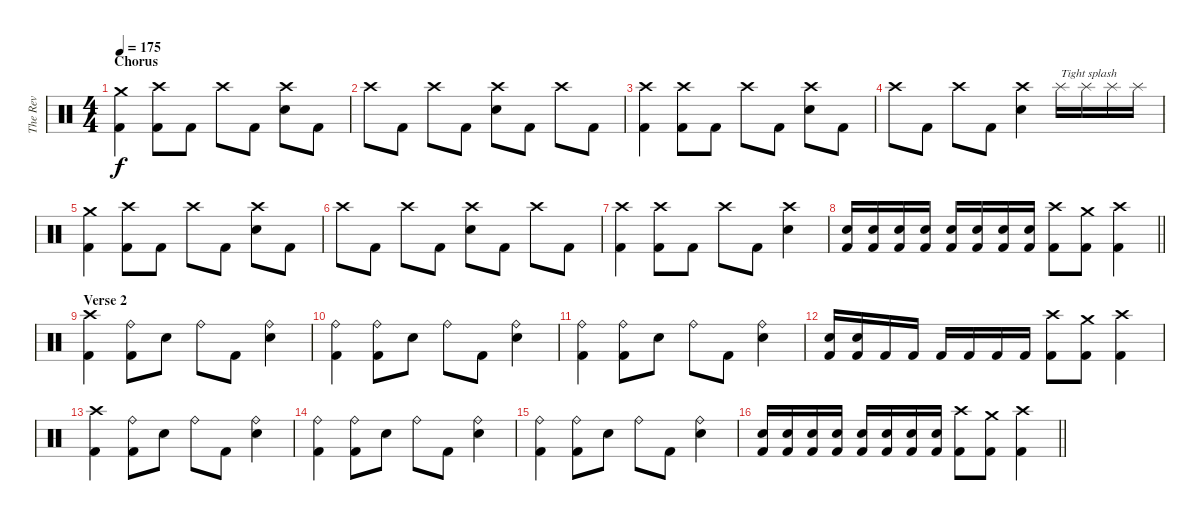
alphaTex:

\track ("The Rev" "The Rev") {instrument percussion}
\staff {score}
\articulation defaults
\ts (4 4)
\section ("" "Chorus")
\tempo 175
\clef neutral
\ks c
("Crash medium (hit)" "Kick (hit) 2").4{dy f} ("Crash high (hit)" "Kick (hit) 2").8 "Kick (hit) 2".8 "Crash high (hit)".8 "Kick (hit) 2".8 ("Crash high (hit)" "Snare (hit) 2").8 "Kick (hit) 2".8 |
"Crash high (hit)".8 "Kick (hit) 2".8 "Crash high (hit)".8 "Kick (hit) 2".8 ("Crash high (hit)" "Snare (hit) 2").8 "Kick (hit) 2".8 "Crash high (hit)".8 "Kick (hit) 2".8 |
("Crash high (hit)" "Kick (hit) 2").4 ("Crash high (hit)" "Kick (hit) 2").8 "Kick (hit) 2".8 "Crash high (hit)".8 "Kick (hit) 2".8 ("Crash high (hit)" "Snare (hit) 2").8 "Kick (hit) 2".8 |
"Crash high (hit)".8 "Kick (hit) 2".8 "Crash high (hit)".8 "Kick (hit) 2".8 ("Crash high (hit)" "Snare (hit) 2").4 "Splash (hit)".16{txt "Tight splash"} "Splash (hit)".16 "Splash (hit)".16 "Splash (hit)".16 |
("Crash medium (hit)" "Kick (hit) 2").4 ("Crash high (hit)" "Kick (hit) 2").8 "Kick (hit) 2".8 "Crash high (hit)".8 "Kick (hit) 2".8 ("Crash high (hit)" "Snare (hit) 2").8 "Kick (hit) 2".8 |
"Crash high (hit)".8 "Kick (hit) 2".8 "Crash high (hit)".8 "Kick (hit) 2".8 ("Crash high (hit)" "Snare (hit) 2").8 "Kick (hit) 2".8 "Crash high (hit)".8 "Kick (hit) 2".8 |
("Crash high (hit)" "Kick (hit) 2").4 ("Crash high (hit)" "Kick (hit) 2").8 "Kick (hit) 2".8 "Crash high (hit)".8 "Kick (hit) 2".8 ("Crash high (hit)" "Snare (hit) 2").4 |
\barLineRight lightlight
("Snare (hit) 2" "Kick (hit) 2").16 ("Snare (hit) 2" "Kick (hit) 2").16 ("Snare (hit) 2" "Kick (hit) 2").16 ("Snare (hit) 2" "Kick (hit) 2").16 ("Snare (hit) 2" "Kick (hit) 2").16 ("Snare (hit) 2" "Kick (hit) 2").16 ("Snare (hit) 2" "Kick (hit) 2").16 ("Snare (hit) 2" "Kick (hit) 2").16 ("Crash high (hit)" "Kick (hit) 2").8 ("Crash medium (hit)" "Kick (hit) 2").8 ("Crash high (hit)" "Kick (hit) 2").4 |
\section ("" "Verse 2")
("Crash high (hit)" "Kick (hit) 2").4 ("Ride (bell)" "Kick (hit) 2").8 "Snare (hit) 2".8 "Ride (bell)".8 "Kick (hit) 2".8 ("Ride (bell)" "Snare (hit) 2").4 |
("Ride (bell)" "Kick (hit) 2").4 ("Ride (bell)" "Kick (hit) 2").8 "Snare (hit) 2".8 "Ride (bell)".8 "Kick (hit) 2".8 ("Ride (bell)" "Snare (hit) 2").4 |
("Ride (bell)" "Kick (hit) 2").4 ("Ride (bell)" "Kick (hit) 2").8 "Snare (hit) 2".8 "Ride (bell)".8 "Kick (hit) 2".8 ("Ride (bell)" "Snare (hit) 2").4 |
("Snare (hit) 2" "Kick (hit) 2").16 ("Snare (hit) 2" "Kick (hit) 2").16 "Kick (hit) 2".16 "Kick (hit) 2".16 "Kick (hit) 2".16 "Kick (hit) 2".16 "Kick (hit) 2".16 "Kick (hit) 2".16 ("Crash high (hit)" "Kick (hit) 2").8 ("Crash medium (hit)" "Kick (hit) 2").8 ("Crash high (hit)" "Kick (hit) 2").4 |
("Crash high (hit)" "Kick (hit) 2").4 ("Ride (bell)" "Kick (hit) 2").8 "Snare (hit) 2".8 "Ride (bell)".8 "Kick (hit) 2".8 ("Ride (bell)" "Snare (hit) 2").4 |
("Ride (bell)" "Kick (hit) 2").4 ("Ride (bell)" "Kick (hit) 2").8 "Snare (hit) 2".8 "Ride (bell)".8 "Kick (hit) 2".8 ("Ride (bell)" "Snare (hit) 2").4 |
("Ride (bell)" "Kick (hit) 2").4 ("Ride (bell)" "Kick (hit) 2").8 "Snare (hit) 2".8 "Ride (bell)".8 "Kick (hit) 2".8 ("Ride (bell)" "Snare (hit) 2").4 |
\barLineRight lightlight
("Snare (hit) 2" "Kick (hit) 2").16 ("Snare (hit) 2" "Kick (hit) 2").16 ("Snare (hit) 2" "Kick (hit) 2").16 ("Snare (hit) 2" "Kick (hit) 2").16 ("Snare (hit) 2" "Kick (hit) 2").16 ("Snare (hit) 2" "Kick (hit) 2").16 ("Snare (hit) 2" "Kick (hit) 2").16 ("Snare (hit) 2" "Kick (hit) 2").16 ("Crash high (hit)" "Kick (hit) 2").8 ("Crash medium (hit)" "Kick (hit) 2").8 ("Crash high (hit)" "Kick (hit) 2").4
